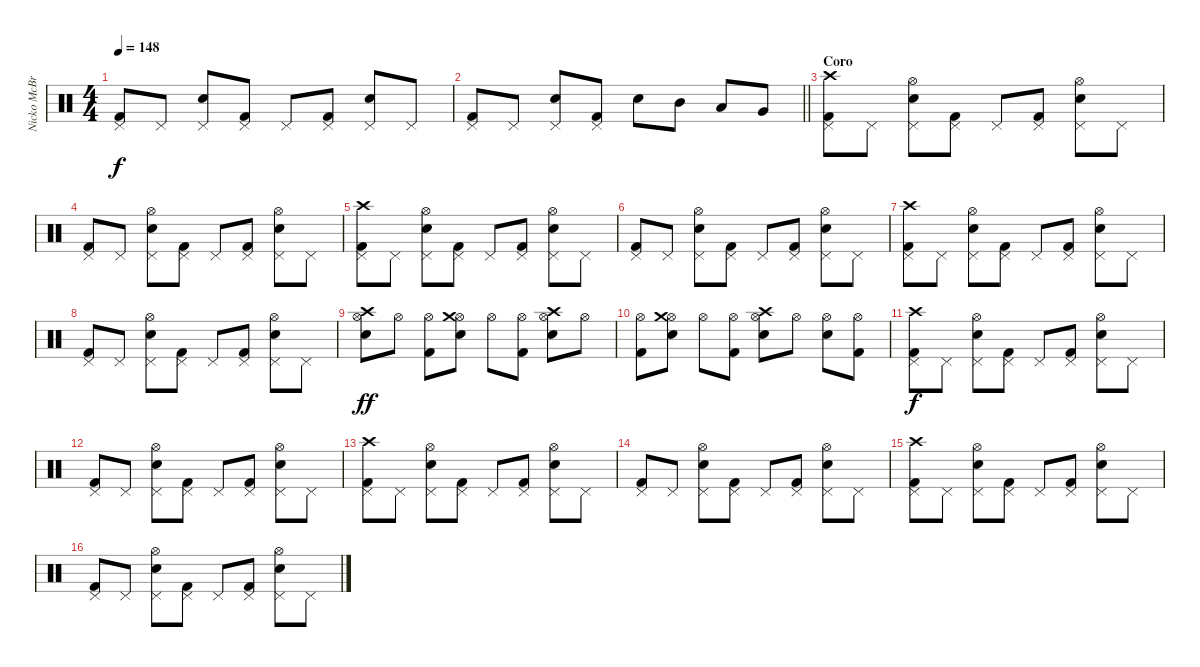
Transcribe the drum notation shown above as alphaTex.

\track ("Nicko McBrain" "Nicko McBr") {instrument percussion}
\staff {score}
\articulation defaults
\ts (4 4)
\tempo 148
\clef neutral
\ks c
("Kick (hit) 2" "Pedal Hi-Hat (hit)").8{dy f} "Pedal Hi-Hat (hit)".8 ("Snare (hit) 2" "Pedal Hi-Hat (hit)").8 ("Kick (hit) 2" "Pedal Hi-Hat (hit)").8 "Pedal Hi-Hat (hit)".8 ("Kick (hit) 2" "Pedal Hi-Hat (hit)").8 ("Snare (hit) 2" "Pedal Hi-Hat (hit)").8 "Pedal Hi-Hat (hit)".8 |
\barLineRight lightlight
("Kick (hit) 2" "Pedal Hi-Hat (hit)").8 "Pedal Hi-Hat (hit)".8 ("Snare (hit) 2" "Pedal Hi-Hat (hit)").8 ("Kick (hit) 2" "Pedal Hi-Hat (hit)").8 "Snare (hit) 2".8 "Mid Tom (hit)".8 "Low Tom (hit)".8 "Very Low Tom (hit)".8 |
\section ("" "Coro")
("Kick (hit) 2" "Pedal Hi-Hat (hit)" "Crash high (hit)").8 "Pedal Hi-Hat (hit)".8 ("Snare (hit) 2" "Pedal Hi-Hat (hit)" "Hi-Hat (open)").8 ("Kick (hit) 2" "Pedal Hi-Hat (hit)").8 "Pedal Hi-Hat (hit)".8 ("Kick (hit) 2" "Pedal Hi-Hat (hit)").8 ("Snare (hit) 2" "Pedal Hi-Hat (hit)" "Hi-Hat (open)").8 "Pedal Hi-Hat (hit)".8 |
("Kick (hit) 2" "Pedal Hi-Hat (hit)").8 "Pedal Hi-Hat (hit)".8 ("Snare (hit) 2" "Pedal Hi-Hat (hit)" "Hi-Hat (open)").8 ("Kick (hit) 2" "Pedal Hi-Hat (hit)").8 "Pedal Hi-Hat (hit)".8 ("Kick (hit) 2" "Pedal Hi-Hat (hit)").8 ("Snare (hit) 2" "Pedal Hi-Hat (hit)" "Hi-Hat (open)").8 "Pedal Hi-Hat (hit)".8 |
("Kick (hit) 2" "Pedal Hi-Hat (hit)" "Crash high (hit)").8 "Pedal Hi-Hat (hit)".8 ("Snare (hit) 2" "Pedal Hi-Hat (hit)" "Hi-Hat (open)").8 ("Kick (hit) 2" "Pedal Hi-Hat (hit)").8 "Pedal Hi-Hat (hit)".8 ("Kick (hit) 2" "Pedal Hi-Hat (hit)").8 ("Snare (hit) 2" "Pedal Hi-Hat (hit)" "Hi-Hat (open)").8 "Pedal Hi-Hat (hit)".8 |
("Kick (hit) 2" "Pedal Hi-Hat (hit)").8 "Pedal Hi-Hat (hit)".8 ("Snare (hit) 2" "Pedal Hi-Hat (hit)" "Hi-Hat (open)").8 ("Kick (hit) 2" "Pedal Hi-Hat (hit)").8 "Pedal Hi-Hat (hit)".8 ("Kick (hit) 2" "Pedal Hi-Hat (hit)").8 ("Snare (hit) 2" "Pedal Hi-Hat (hit)" "Hi-Hat (open)").8 "Pedal Hi-Hat (hit)".8 |
("Kick (hit) 2" "Pedal Hi-Hat (hit)" "Crash high (hit)").8 "Pedal Hi-Hat (hit)".8 ("Snare (hit) 2" "Pedal Hi-Hat (hit)" "Hi-Hat (open)").8 ("Kick (hit) 2" "Pedal Hi-Hat (hit)").8 "Pedal Hi-Hat (hit)".8 ("Kick (hit) 2" "Pedal Hi-Hat (hit)").8 ("Snare (hit) 2" "Pedal Hi-Hat (hit)" "Hi-Hat (open)").8 "Pedal Hi-Hat (hit)".8 |
("Kick (hit) 2" "Pedal Hi-Hat (hit)").8 "Pedal Hi-Hat (hit)".8 ("Snare (hit) 2" "Pedal Hi-Hat (hit)" "Hi-Hat (open)").8 ("Kick (hit) 2" "Pedal Hi-Hat (hit)").8 "Pedal Hi-Hat (hit)".8 ("Kick (hit) 2" "Pedal Hi-Hat (hit)").8 ("Snare (hit) 2" "Pedal Hi-Hat (hit)" "Hi-Hat (open)").8 "Pedal Hi-Hat (hit)".8 |
("Snare (hit) 2" "Hi-Hat (open)" "Crash high (hit)").8{dy ff} "Hi-Hat (open)".8 ("Kick (hit) 2" "Hi-Hat (open)").8 ("Snare (hit) 2" "Hi-Hat (open)" "Crash medium (hit)").8 "Hi-Hat (open)".8 ("Kick (hit) 2" "Hi-Hat (open)").8 ("Snare (hit) 2" "Hi-Hat (open)" "Crash high (hit)").8 "Hi-Hat (open)".8 |
("Kick (hit) 2" "Hi-Hat (open)").8 ("Snare (hit) 2" "Hi-Hat (open)" "Crash medium (hit)").8 "Hi-Hat (open)".8 ("Kick (hit) 2" "Hi-Hat (open)").8 ("Snare (hit) 2" "Hi-Hat (open)" "Crash high (hit)").8 "Hi-Hat (open)".8 ("Snare (hit) 2" "Hi-Hat (open)").8 ("Kick (hit) 2" "Hi-Hat (open)").8 |
("Kick (hit) 2" "Pedal Hi-Hat (hit)" "Crash high (hit)").8{dy f} "Pedal Hi-Hat (hit)".8 ("Snare (hit) 2" "Pedal Hi-Hat (hit)" "Hi-Hat (open)").8 ("Kick (hit) 2" "Pedal Hi-Hat (hit)").8 "Pedal Hi-Hat (hit)".8 ("Kick (hit) 2" "Pedal Hi-Hat (hit)").8 ("Snare (hit) 2" "Pedal Hi-Hat (hit)" "Hi-Hat (open)").8 "Pedal Hi-Hat (hit)".8 |
("Kick (hit) 2" "Pedal Hi-Hat (hit)").8 "Pedal Hi-Hat (hit)".8 ("Snare (hit) 2" "Pedal Hi-Hat (hit)" "Hi-Hat (open)").8 ("Kick (hit) 2" "Pedal Hi-Hat (hit)").8 "Pedal Hi-Hat (hit)".8 ("Kick (hit) 2" "Pedal Hi-Hat (hit)").8 ("Snare (hit) 2" "Pedal Hi-Hat (hit)" "Hi-Hat (open)").8 "Pedal Hi-Hat (hit)".8 |
("Kick (hit) 2" "Pedal Hi-Hat (hit)" "Crash high (hit)").8 "Pedal Hi-Hat (hit)".8 ("Snare (hit) 2" "Pedal Hi-Hat (hit)" "Hi-Hat (open)").8 ("Kick (hit) 2" "Pedal Hi-Hat (hit)").8 "Pedal Hi-Hat (hit)".8 ("Kick (hit) 2" "Pedal Hi-Hat (hit)").8 ("Snare (hit) 2" "Pedal Hi-Hat (hit)" "Hi-Hat (open)").8 "Pedal Hi-Hat (hit)".8 |
("Kick (hit) 2" "Pedal Hi-Hat (hit)").8 "Pedal Hi-Hat (hit)".8 ("Snare (hit) 2" "Pedal Hi-Hat (hit)" "Hi-Hat (open)").8 ("Kick (hit) 2" "Pedal Hi-Hat (hit)").8 "Pedal Hi-Hat (hit)".8 ("Kick (hit) 2" "Pedal Hi-Hat (hit)").8 ("Snare (hit) 2" "Pedal Hi-Hat (hit)" "Hi-Hat (open)").8 "Pedal Hi-Hat (hit)".8 |
("Kick (hit) 2" "Pedal Hi-Hat (hit)" "Crash high (hit)").8 "Pedal Hi-Hat (hit)".8 ("Snare (hit) 2" "Pedal Hi-Hat (hit)" "Hi-Hat (open)").8 ("Kick (hit) 2" "Pedal Hi-Hat (hit)").8 "Pedal Hi-Hat (hit)".8 ("Kick (hit) 2" "Pedal Hi-Hat (hit)").8 ("Snare (hit) 2" "Pedal Hi-Hat (hit)" "Hi-Hat (open)").8 "Pedal Hi-Hat (hit)".8 |
("Kick (hit) 2" "Pedal Hi-Hat (hit)").8 "Pedal Hi-Hat (hit)".8 ("Snare (hit) 2" "Pedal Hi-Hat (hit)" "Hi-Hat (open)").8 ("Kick (hit) 2" "Pedal Hi-Hat (hit)").8 "Pedal Hi-Hat (hit)".8 ("Kick (hit) 2" "Pedal Hi-Hat (hit)").8 ("Snare (hit) 2" "Pedal Hi-Hat (hit)" "Hi-Hat (open)").8 "Pedal Hi-Hat (hit)".8
